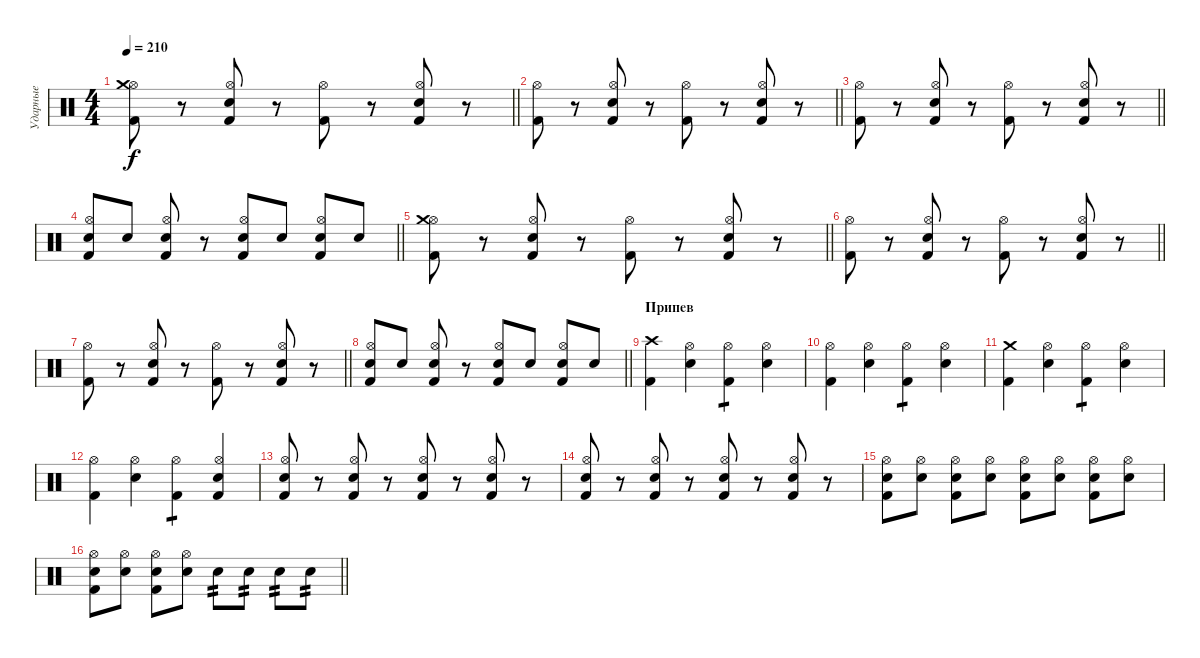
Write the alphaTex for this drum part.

\track ("Ударные" "Ударные") {instrument percussion}
\staff {score}
\articulation defaults
\ts (4 4)
\tempo 210
\clef neutral
\barLineRight lightlight
\ks c
("Kick (hit) 2" "Hi-Hat (open)" "Crash medium (hit)").8{dy f} r.8 ("Kick (hit) 2" "Hi-Hat (open)" "Electric Snare (hit)").8 r.8 ("Kick (hit) 2" "Hi-Hat (open)").8 r.8 ("Kick (hit) 2" "Hi-Hat (open)" "Electric Snare (hit)").8 r.8 |
\barLineRight lightlight
("Kick (hit) 2" "Hi-Hat (open)").8 r.8 ("Kick (hit) 2" "Hi-Hat (open)" "Electric Snare (hit)").8 r.8 ("Kick (hit) 2" "Hi-Hat (open)").8 r.8 ("Kick (hit) 2" "Hi-Hat (open)" "Electric Snare (hit)").8 r.8 |
\barLineRight lightlight
("Kick (hit) 2" "Hi-Hat (open)").8 r.8 ("Kick (hit) 2" "Hi-Hat (open)" "Electric Snare (hit)").8 r.8 ("Kick (hit) 2" "Hi-Hat (open)").8 r.8 ("Kick (hit) 2" "Hi-Hat (open)" "Electric Snare (hit)").8 r.8 |
\barLineRight lightlight
("Kick (hit) 2" "Hi-Hat (open)" "Electric Snare (hit)").8 "Electric Snare (hit)".8 ("Kick (hit) 2" "Hi-Hat (open)" "Electric Snare (hit)").8 r.8 ("Kick (hit) 2" "Hi-Hat (open)" "Electric Snare (hit)").8 "Electric Snare (hit)".8 ("Kick (hit) 2" "Hi-Hat (open)" "Electric Snare (hit)").8 "Electric Snare (hit)".8 |
\barLineRight lightlight
("Kick (hit) 2" "Hi-Hat (open)" "Crash medium (hit)").8 r.8 ("Kick (hit) 2" "Hi-Hat (open)" "Electric Snare (hit)").8 r.8 ("Kick (hit) 2" "Hi-Hat (open)").8 r.8 ("Kick (hit) 2" "Hi-Hat (open)" "Electric Snare (hit)").8 r.8 |
\barLineRight lightlight
("Kick (hit) 2" "Hi-Hat (open)").8 r.8 ("Kick (hit) 2" "Hi-Hat (open)" "Electric Snare (hit)").8 r.8 ("Kick (hit) 2" "Hi-Hat (open)").8 r.8 ("Kick (hit) 2" "Hi-Hat (open)" "Electric Snare (hit)").8 r.8 |
\barLineRight lightlight
("Kick (hit) 2" "Hi-Hat (open)").8 r.8 ("Kick (hit) 2" "Hi-Hat (open)" "Electric Snare (hit)").8 r.8 ("Kick (hit) 2" "Hi-Hat (open)").8 r.8 ("Kick (hit) 2" "Hi-Hat (open)" "Electric Snare (hit)").8 r.8 |
\barLineRight lightlight
("Kick (hit) 2" "Hi-Hat (open)" "Electric Snare (hit)").8 "Electric Snare (hit)".8 ("Kick (hit) 2" "Hi-Hat (open)" "Electric Snare (hit)").8 r.8 ("Kick (hit) 2" "Hi-Hat (open)" "Electric Snare (hit)").8 "Electric Snare (hit)".8 ("Kick (hit) 2" "Hi-Hat (open)" "Electric Snare (hit)").8 "Electric Snare (hit)".8 |
\section ("" "Припев")
("Kick (hit) 2" "Crash high (hit)").4 ("Hi-Hat (open)" "Electric Snare (hit)").4 ("Kick (hit) 2" "Hi-Hat (open)").4{tp 1} ("Hi-Hat (open)" "Electric Snare (hit)").4 |
("Kick (hit) 2" "Hi-Hat (open)").4 ("Hi-Hat (open)" "Electric Snare (hit)").4 ("Kick (hit) 2" "Hi-Hat (open)").4{tp 1} ("Hi-Hat (open)" "Electric Snare (hit)").4 |
("Kick (hit) 2" "Crash medium (hit)").4 ("Hi-Hat (open)" "Electric Snare (hit)").4 ("Kick (hit) 2" "Hi-Hat (open)").4{tp 1} ("Hi-Hat (open)" "Electric Snare (hit)").4 |
("Kick (hit) 2" "Hi-Hat (open)").4 ("Hi-Hat (open)" "Electric Snare (hit)").4 ("Kick (hit) 2" "Hi-Hat (open)").4{tp 1} ("Hi-Hat (open)" "Electric Snare (hit)" "Kick (hit) 2").4 |
("Kick (hit) 2" "Hi-Hat (open)" "Electric Snare (hit)").8 r.8 ("Kick (hit) 2" "Hi-Hat (open)" "Electric Snare (hit)").8 r.8 ("Kick (hit) 2" "Hi-Hat (open)" "Electric Snare (hit)").8 r.8 ("Kick (hit) 2" "Hi-Hat (open)" "Electric Snare (hit)").8 r.8 |
("Kick (hit) 2" "Hi-Hat (open)" "Electric Snare (hit)").8 r.8 ("Kick (hit) 2" "Hi-Hat (open)" "Electric Snare (hit)").8 r.8 ("Kick (hit) 2" "Hi-Hat (open)" "Electric Snare (hit)").8 r.8 ("Kick (hit) 2" "Hi-Hat (open)" "Electric Snare (hit)").8 r.8 |
("Kick (hit) 2" "Hi-Hat (open)" "Electric Snare (hit)").8 ("Hi-Hat (open)" "Electric Snare (hit)").8 ("Kick (hit) 2" "Hi-Hat (open)" "Electric Snare (hit)").8 ("Hi-Hat (open)" "Electric Snare (hit)").8 ("Kick (hit) 2" "Hi-Hat (open)" "Electric Snare (hit)").8 ("Hi-Hat (open)" "Electric Snare (hit)").8 ("Kick (hit) 2" "Hi-Hat (open)" "Electric Snare (hit)").8 ("Hi-Hat (open)" "Electric Snare (hit)").8 |
\barLineRight lightlight
("Kick (hit) 2" "Hi-Hat (open)" "Electric Snare (hit)").8 ("Hi-Hat (open)" "Electric Snare (hit)").8 ("Kick (hit) 2" "Hi-Hat (open)" "Electric Snare (hit)").8 ("Hi-Hat (open)" "Electric Snare (hit)").8 "Electric Snare (hit)".8{tp 2} "Electric Snare (hit)".8{tp 2} "Electric Snare (hit)".8{tp 2} "Electric Snare (hit)".8{tp 2}
